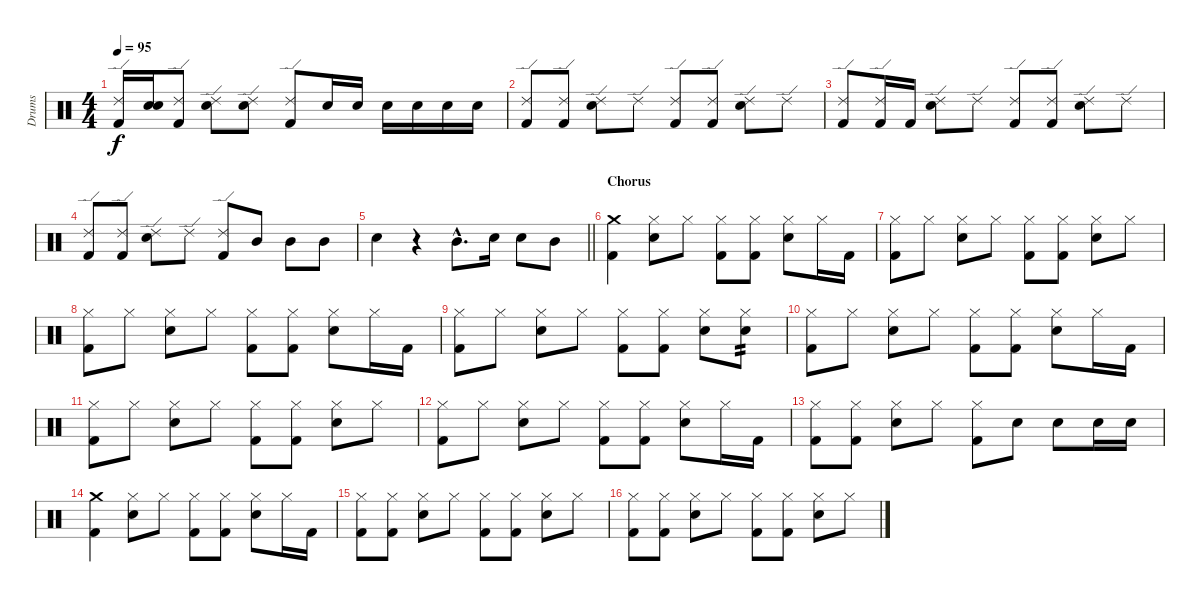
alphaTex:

\track ("Drums" "Drums") {instrument percussion}
\staff {score}
\articulation defaults
\ts (4 4)
\tempo 95
\clef neutral
\ks c
("Ride (edge) 2" "Kick (hit) 2").16{dy f} ("Snare (hit) 2" "Snare (hit) 2").16 ("Ride (edge) 2" "Kick (hit) 2").8 ("Ride (edge) 2" "Snare (hit) 2").8 ("Ride (edge) 2" "Snare (hit) 2").8 ("Ride (edge) 2" "Kick (hit) 2").8 "Snare (hit) 2".16 "Snare (hit) 2".16 "Snare (hit) 2".16 "Snare (hit) 2".16 "Snare (hit) 2".16 "Snare (hit) 2".16 |
("Ride (edge) 2" "Kick (hit) 2").8 ("Ride (edge) 2" "Kick (hit) 2").8 ("Ride (edge) 2" "Snare (hit) 2").8 "Ride (edge) 2".8 ("Ride (edge) 2" "Kick (hit) 2").8 ("Ride (edge) 2" "Kick (hit) 2").8 ("Ride (edge) 2" "Snare (hit) 2").8 "Ride (edge) 2".8 |
("Ride (edge) 2" "Kick (hit) 2").8 ("Ride (edge) 2" "Kick (hit) 2").16 "Kick (hit) 2".16 ("Ride (edge) 2" "Snare (hit) 2").8 "Ride (edge) 2".8 ("Ride (edge) 2" "Kick (hit) 2").8 ("Ride (edge) 2" "Kick (hit) 2").8 ("Ride (edge) 2" "Snare (hit) 2").8 "Ride (edge) 2".8 |
("Ride (edge) 2" "Kick (hit) 2").8 ("Ride (edge) 2" "Kick (hit) 2").8 ("Ride (edge) 2" "Snare (hit) 2").8 "Ride (edge) 2".8 ("Ride (edge) 2" "Kick (hit) 2").8 "Mid Tom (hit)".8 "Mid Tom (hit)".8 "Mid Tom (hit)".8 |
\barLineRight lightlight "Snare (hit) 2".4
r.4 "Mid Tom (hit)"{hac}.8{d} "Snare (hit) 2".16 "Snare (hit) 2".8 "Mid Tom (hit)".8 |
\section ("" "Chorus")
("Crash medium (hit)" "Kick (hit) 2").4 ("Hi-Hat (closed)" "Snare (hit) 2").8 "Hi-Hat (closed)".8 ("Hi-Hat (closed)" "Kick (hit) 2").8 ("Hi-Hat (closed)" "Kick (hit) 2").8 ("Hi-Hat (closed)" "Snare (hit) 2").8 "Hi-Hat (closed)".16 "Kick (hit) 2".16 |
("Hi-Hat (closed)" "Kick (hit) 2").8 "Hi-Hat (closed)".8 ("Hi-Hat (closed)" "Snare (hit) 2").8 "Hi-Hat (closed)".8 ("Hi-Hat (closed)" "Kick (hit) 2").8 ("Hi-Hat (closed)" "Kick (hit) 2").8 ("Hi-Hat (closed)" "Snare (hit) 2").8 "Hi-Hat (closed)".8 |
("Hi-Hat (closed)" "Kick (hit) 2").8 "Hi-Hat (closed)".8 ("Hi-Hat (closed)" "Snare (hit) 2").8 "Hi-Hat (closed)".8 ("Hi-Hat (closed)" "Kick (hit) 2").8 ("Hi-Hat (closed)" "Kick (hit) 2").8 ("Hi-Hat (closed)" "Snare (hit) 2").8 "Hi-Hat (closed)".16 "Kick (hit) 2".16 |
("Hi-Hat (closed)" "Kick (hit) 2").8 "Hi-Hat (closed)".8 ("Hi-Hat (closed)" "Snare (hit) 2").8 "Hi-Hat (closed)".8 ("Hi-Hat (closed)" "Kick (hit) 2").8 ("Hi-Hat (closed)" "Kick (hit) 2").8 ("Hi-Hat (closed)" "Snare (hit) 2").8 ("Hi-Hat (closed)" "Snare (hit) 2").8{tp 2} |
("Hi-Hat (closed)" "Kick (hit) 2").8 "Hi-Hat (closed)".8 ("Hi-Hat (closed)" "Snare (hit) 2").8 "Hi-Hat (closed)".8 ("Hi-Hat (closed)" "Kick (hit) 2").8 ("Hi-Hat (closed)" "Kick (hit) 2").8 ("Hi-Hat (closed)" "Snare (hit) 2").8 "Hi-Hat (closed)".16 "Kick (hit) 2".16 |
("Hi-Hat (closed)" "Kick (hit) 2").8 "Hi-Hat (closed)".8 ("Hi-Hat (closed)" "Snare (hit) 2").8 "Hi-Hat (closed)".8 ("Hi-Hat (closed)" "Kick (hit) 2").8 ("Hi-Hat (closed)" "Kick (hit) 2").8 ("Hi-Hat (closed)" "Snare (hit) 2").8 "Hi-Hat (closed)".8 |
("Hi-Hat (closed)" "Kick (hit) 2").8 "Hi-Hat (closed)".8 ("Hi-Hat (closed)" "Snare (hit) 2").8 "Hi-Hat (closed)".8 ("Hi-Hat (closed)" "Kick (hit) 2").8 ("Hi-Hat (closed)" "Kick (hit) 2").8 ("Hi-Hat (closed)" "Snare (hit) 2").8 "Hi-Hat (closed)".16 "Kick (hit) 2".16 |
("Hi-Hat (closed)" "Kick (hit) 2").8 ("Hi-Hat (closed)" "Kick (hit) 2").8 ("Hi-Hat (closed)" "Snare (hit) 2").8 "Hi-Hat (closed)".8 ("Hi-Hat (closed)" "Kick (hit) 2").8 "Snare (hit) 2".8 "Snare (hit) 2".8 "Snare (hit) 2".16 "Snare (hit) 2".16 |
("Crash medium (hit)" "Kick (hit) 2").4 ("Hi-Hat (closed)" "Snare (hit) 2").8 "Hi-Hat (closed)".8 ("Hi-Hat (closed)" "Kick (hit) 2").8 ("Hi-Hat (closed)" "Kick (hit) 2").8 ("Hi-Hat (closed)" "Snare (hit) 2").8 "Hi-Hat (closed)".16 "Kick (hit) 2".16 |
("Hi-Hat (closed)" "Kick (hit) 2").8 ("Hi-Hat (closed)" "Kick (hit) 2").8 ("Hi-Hat (closed)" "Snare (hit) 2").8 "Hi-Hat (closed)".8 ("Hi-Hat (closed)" "Kick (hit) 2").8 ("Hi-Hat (closed)" "Kick (hit) 2").8 ("Hi-Hat (closed)" "Snare (hit) 2").8 "Hi-Hat (closed)".8 |
("Hi-Hat (closed)" "Kick (hit) 2").8 ("Hi-Hat (closed)" "Kick (hit) 2").8 ("Hi-Hat (closed)" "Snare (hit) 2").8 "Hi-Hat (closed)".8 ("Hi-Hat (closed)" "Kick (hit) 2").8 ("Hi-Hat (closed)" "Kick (hit) 2").8 ("Hi-Hat (closed)" "Snare (hit) 2").8 "Hi-Hat (closed)".8
